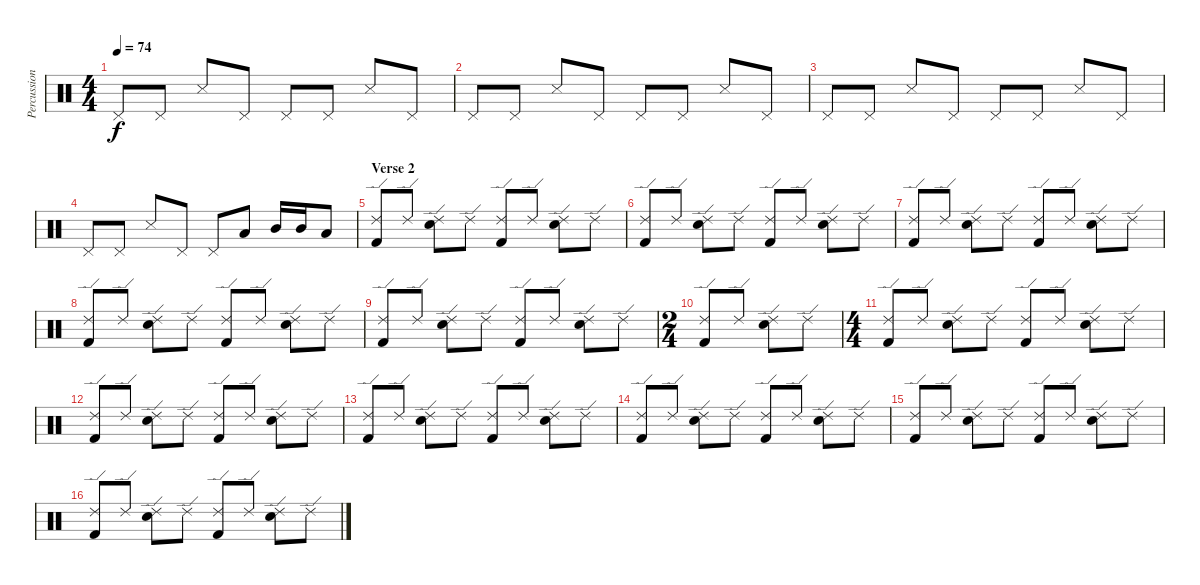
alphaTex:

\track ("Percussion" "Percussion") {instrument percussion}
\staff {score}
\articulation defaults
\ts (4 4)
\tempo 74
\clef neutral
\ks c "Pedal Hi-Hat (hit)".8{dy f} "Pedal Hi-Hat (hit)".8 "Snare (side stick) 3".8 "Pedal Hi-Hat (hit)".8 "Pedal Hi-Hat (hit)".8 "Pedal Hi-Hat (hit)".8 "Snare (side stick) 3".8 "Pedal Hi-Hat (hit)".8
|
"Pedal Hi-Hat (hit)".8 "Pedal Hi-Hat (hit)".8 "Snare (side stick) 3".8 "Pedal Hi-Hat (hit)".8 "Pedal Hi-Hat (hit)".8 "Pedal Hi-Hat (hit)".8 "Snare (side stick) 3".8 "Pedal Hi-Hat (hit)".8 |
"Pedal Hi-Hat (hit)".8 "Pedal Hi-Hat (hit)".8 "Snare (side stick) 3".8 "Pedal Hi-Hat (hit)".8 "Pedal Hi-Hat (hit)".8 "Pedal Hi-Hat (hit)".8 "Snare (side stick) 3".8 "Pedal Hi-Hat (hit)".8 |
"Pedal Hi-Hat (hit)".8 "Pedal Hi-Hat (hit)".8 "Snare (side stick) 3".8 "Pedal Hi-Hat (hit)".8 "Pedal Hi-Hat (hit)".8 "Low Floor Tom (hit)".8 "Mid Tom (hit)".16 "Mid Tom (hit)".16 "Low Floor Tom (hit)".8 |
\section ("" "Verse 2")
("Ride (edge) 2" "Kick (hit) 2").8 "Ride (edge) 2".8 ("Ride (edge) 2" "Electric Snare (hit)").8 "Ride (edge) 2".8 ("Ride (edge) 2" "Kick (hit) 2").8 "Ride (edge) 2".8 ("Ride (edge) 2" "Electric Snare (hit)").8 "Ride (edge) 2".8 |
("Ride (edge) 2" "Kick (hit) 2").8 "Ride (edge) 2".8 ("Ride (edge) 2" "Electric Snare (hit)").8 "Ride (edge) 2".8 ("Ride (edge) 2" "Kick (hit) 2").8 "Ride (edge) 2".8 ("Ride (edge) 2" "Electric Snare (hit)").8 "Ride (edge) 2".8 |
("Ride (edge) 2" "Kick (hit) 2").8 "Ride (edge) 2".8 ("Ride (edge) 2" "Electric Snare (hit)").8 "Ride (edge) 2".8 ("Ride (edge) 2" "Kick (hit) 2").8 "Ride (edge) 2".8 ("Ride (edge) 2" "Electric Snare (hit)").8 "Ride (edge) 2".8 |
("Ride (edge) 2" "Kick (hit) 2").8 "Ride (edge) 2".8 ("Ride (edge) 2" "Electric Snare (hit)").8 "Ride (edge) 2".8 ("Ride (edge) 2" "Kick (hit) 2").8 "Ride (edge) 2".8 ("Ride (edge) 2" "Electric Snare (hit)").8 "Ride (edge) 2".8 |
("Ride (edge) 2" "Kick (hit) 2").8 "Ride (edge) 2".8 ("Ride (edge) 2" "Electric Snare (hit)").8 "Ride (edge) 2".8 ("Ride (edge) 2" "Kick (hit) 2").8 "Ride (edge) 2".8 ("Ride (edge) 2" "Electric Snare (hit)").8 "Ride (edge) 2".8 |
\ts (2 4)
("Ride (edge) 2" "Kick (hit) 2").8 "Ride (edge) 2".8 ("Ride (edge) 2" "Electric Snare (hit)").8 "Ride (edge) 2".8 |
\ts (4 4)
("Ride (edge) 2" "Kick (hit) 2").8 "Ride (edge) 2".8 ("Ride (edge) 2" "Electric Snare (hit)").8 "Ride (edge) 2".8 ("Ride (edge) 2" "Kick (hit) 2").8 "Ride (edge) 2".8 ("Ride (edge) 2" "Electric Snare (hit)").8 "Ride (edge) 2".8 |
("Ride (edge) 2" "Kick (hit) 2").8 "Ride (edge) 2".8 ("Ride (edge) 2" "Electric Snare (hit)").8 "Ride (edge) 2".8 ("Ride (edge) 2" "Kick (hit) 2").8 "Ride (edge) 2".8 ("Ride (edge) 2" "Electric Snare (hit)").8 "Ride (edge) 2".8 |
("Ride (edge) 2" "Kick (hit) 2").8 "Ride (edge) 2".8 ("Ride (edge) 2" "Electric Snare (hit)").8 "Ride (edge) 2".8 ("Ride (edge) 2" "Kick (hit) 2").8 "Ride (edge) 2".8 ("Ride (edge) 2" "Electric Snare (hit)").8 "Ride (edge) 2".8 |
("Ride (edge) 2" "Kick (hit) 2").8 "Ride (edge) 2".8 ("Ride (edge) 2" "Electric Snare (hit)").8 "Ride (edge) 2".8 ("Ride (edge) 2" "Kick (hit) 2").8 "Ride (edge) 2".8 ("Ride (edge) 2" "Electric Snare (hit)").8 "Ride (edge) 2".8 |
("Ride (edge) 2" "Kick (hit) 2").8 "Ride (edge) 2".8 ("Ride (edge) 2" "Electric Snare (hit)").8 "Ride (edge) 2".8 ("Ride (edge) 2" "Kick (hit) 2").8 "Ride (edge) 2".8 ("Ride (edge) 2" "Electric Snare (hit)").8 "Ride (edge) 2".8 |
("Ride (edge) 2" "Kick (hit) 2").8 "Ride (edge) 2".8 ("Ride (edge) 2" "Electric Snare (hit)").8 "Ride (edge) 2".8 ("Ride (edge) 2" "Kick (hit) 2").8 "Ride (edge) 2".8 ("Ride (edge) 2" "Electric Snare (hit)").8 "Ride (edge) 2".8
